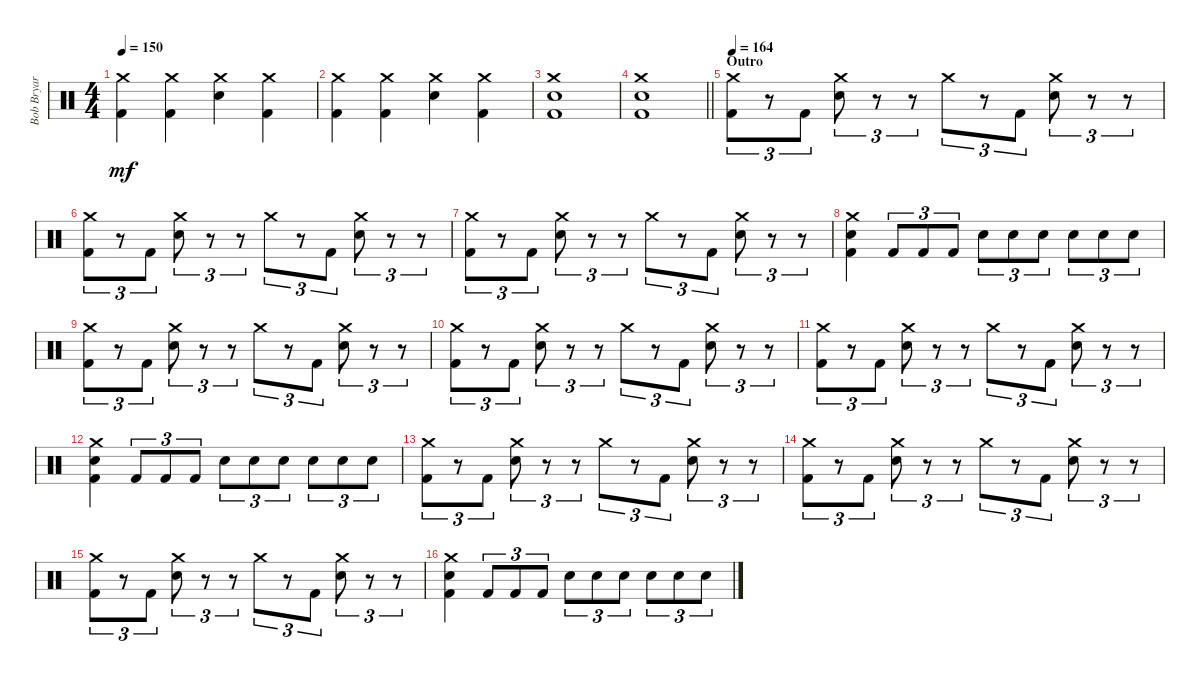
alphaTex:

\track ("Bob Bryar" "Bob Bryar") {instrument percussion}
\staff {score}
\articulation defaults
\ts (4 4)
\tempo 150
\clef neutral
\ks c
("Crash medium (hit)" "Kick (hit) 2").4{dy mf} ("Crash medium (hit)" "Kick (hit) 2").4 ("Crash medium (hit)" "Electric Snare (hit)").4 ("Crash medium (hit)" "Kick (hit) 2").4 |
("Crash medium (hit)" "Kick (hit) 2").4 ("Crash medium (hit)" "Kick (hit) 2").4 ("Crash medium (hit)" "Electric Snare (hit)").4 ("Crash medium (hit)" "Kick (hit) 2").4 |
("Crash medium (hit)" "Electric Snare (hit)" "Kick (hit) 2").1 |
\barLineRight lightlight
("Crash medium (hit)" "Electric Snare (hit)" "Kick (hit) 2").1 |
\section ("" "Outro")
\tempo 164
("Crash medium (hit)" "Kick (hit) 2").8{tu (3 2)} r.8{tu (3 2)} "Kick (hit) 2".8{tu (3 2)} ("Crash medium (hit)" "Electric Snare (hit)").8{tu (3 2)} r.8{tu (3 2)} r.8{tu (3 2)} "Crash medium (hit)".8{tu (3 2)} r.8{tu (3 2)} "Kick (hit) 2".8{tu (3 2)} ("Crash medium (hit)" "Electric Snare (hit)").8{tu (3 2)} r.8{tu (3 2)} r.8{tu (3 2)} |
("Crash medium (hit)" "Kick (hit) 2").8{tu (3 2)} r.8{tu (3 2)} "Kick (hit) 2".8{tu (3 2)} ("Crash medium (hit)" "Electric Snare (hit)").8{tu (3 2)} r.8{tu (3 2)} r.8{tu (3 2)} "Crash medium (hit)".8{tu (3 2)} r.8{tu (3 2)} "Kick (hit) 2".8{tu (3 2)} ("Crash medium (hit)" "Electric Snare (hit)").8{tu (3 2)} r.8{tu (3 2)} r.8{tu (3 2)} |
("Crash medium (hit)" "Kick (hit) 2").8{tu (3 2)} r.8{tu (3 2)} "Kick (hit) 2".8{tu (3 2)} ("Crash medium (hit)" "Electric Snare (hit)").8{tu (3 2)} r.8{tu (3 2)} r.8{tu (3 2)} "Crash medium (hit)".8{tu (3 2)} r.8{tu (3 2)} "Kick (hit) 2".8{tu (3 2)} ("Crash medium (hit)" "Electric Snare (hit)").8{tu (3 2)} r.8{tu (3 2)} r.8{tu (3 2)} |
("Crash medium (hit)" "Electric Snare (hit)" "Kick (hit) 2").4 "Kick (hit) 2".8{tu (3 2)} "Kick (hit) 2".8{tu (3 2)} "Kick (hit) 2".8{tu (3 2)} "Electric Snare (hit)".8{tu (3 2)} "Electric Snare (hit)".8{tu (3 2)} "Electric Snare (hit)".8{tu (3 2)} "Electric Snare (hit)".8{tu (3 2)} "Electric Snare (hit)".8{tu (3 2)} "Electric Snare (hit)".8{tu (3 2)} |
("Crash medium (hit)" "Kick (hit) 2").8{tu (3 2)} r.8{tu (3 2)} "Kick (hit) 2".8{tu (3 2)} ("Crash medium (hit)" "Electric Snare (hit)").8{tu (3 2)} r.8{tu (3 2)} r.8{tu (3 2)} "Crash medium (hit)".8{tu (3 2)} r.8{tu (3 2)} "Kick (hit) 2".8{tu (3 2)} ("Crash medium (hit)" "Electric Snare (hit)").8{tu (3 2)} r.8{tu (3 2)} r.8{tu (3 2)} |
("Crash medium (hit)" "Kick (hit) 2").8{tu (3 2)} r.8{tu (3 2)} "Kick (hit) 2".8{tu (3 2)} ("Crash medium (hit)" "Electric Snare (hit)").8{tu (3 2)} r.8{tu (3 2)} r.8{tu (3 2)} "Crash medium (hit)".8{tu (3 2)} r.8{tu (3 2)} "Kick (hit) 2".8{tu (3 2)} ("Crash medium (hit)" "Electric Snare (hit)").8{tu (3 2)} r.8{tu (3 2)} r.8{tu (3 2)} |
("Crash medium (hit)" "Kick (hit) 2").8{tu (3 2)} r.8{tu (3 2)} "Kick (hit) 2".8{tu (3 2)} ("Crash medium (hit)" "Electric Snare (hit)").8{tu (3 2)} r.8{tu (3 2)} r.8{tu (3 2)} "Crash medium (hit)".8{tu (3 2)} r.8{tu (3 2)} "Kick (hit) 2".8{tu (3 2)} ("Crash medium (hit)" "Electric Snare (hit)").8{tu (3 2)} r.8{tu (3 2)} r.8{tu (3 2)} |
("Crash medium (hit)" "Electric Snare (hit)" "Kick (hit) 2").4 "Kick (hit) 2".8{tu (3 2)} "Kick (hit) 2".8{tu (3 2)} "Kick (hit) 2".8{tu (3 2)} "Electric Snare (hit)".8{tu (3 2)} "Electric Snare (hit)".8{tu (3 2)} "Electric Snare (hit)".8{tu (3 2)} "Electric Snare (hit)".8{tu (3 2)} "Electric Snare (hit)".8{tu (3 2)} "Electric Snare (hit)".8{tu (3 2)} |
("Crash medium (hit)" "Kick (hit) 2").8{tu (3 2)} r.8{tu (3 2)} "Kick (hit) 2".8{tu (3 2)} ("Crash medium (hit)" "Electric Snare (hit)").8{tu (3 2)} r.8{tu (3 2)} r.8{tu (3 2)} "Crash medium (hit)".8{tu (3 2)} r.8{tu (3 2)} "Kick (hit) 2".8{tu (3 2)} ("Crash medium (hit)" "Electric Snare (hit)").8{tu (3 2)} r.8{tu (3 2)} r.8{tu (3 2)} |
("Crash medium (hit)" "Kick (hit) 2").8{tu (3 2)} r.8{tu (3 2)} "Kick (hit) 2".8{tu (3 2)} ("Crash medium (hit)" "Electric Snare (hit)").8{tu (3 2)} r.8{tu (3 2)} r.8{tu (3 2)} "Crash medium (hit)".8{tu (3 2)} r.8{tu (3 2)} "Kick (hit) 2".8{tu (3 2)} ("Crash medium (hit)" "Electric Snare (hit)").8{tu (3 2)} r.8{tu (3 2)} r.8{tu (3 2)} |
("Crash medium (hit)" "Kick (hit) 2").8{tu (3 2)} r.8{tu (3 2)} "Kick (hit) 2".8{tu (3 2)} ("Crash medium (hit)" "Electric Snare (hit)").8{tu (3 2)} r.8{tu (3 2)} r.8{tu (3 2)} "Crash medium (hit)".8{tu (3 2)} r.8{tu (3 2)} "Kick (hit) 2".8{tu (3 2)} ("Crash medium (hit)" "Electric Snare (hit)").8{tu (3 2)} r.8{tu (3 2)} r.8{tu (3 2)} |
("Crash medium (hit)" "Electric Snare (hit)" "Kick (hit) 2").4 "Kick (hit) 2".8{tu (3 2)} "Kick (hit) 2".8{tu (3 2)} "Kick (hit) 2".8{tu (3 2)} "Electric Snare (hit)".8{tu (3 2)} "Electric Snare (hit)".8{tu (3 2)} "Electric Snare (hit)".8{tu (3 2)} "Electric Snare (hit)".8{tu (3 2)} "Electric Snare (hit)".8{tu (3 2)} "Electric Snare (hit)".8{tu (3 2)}
